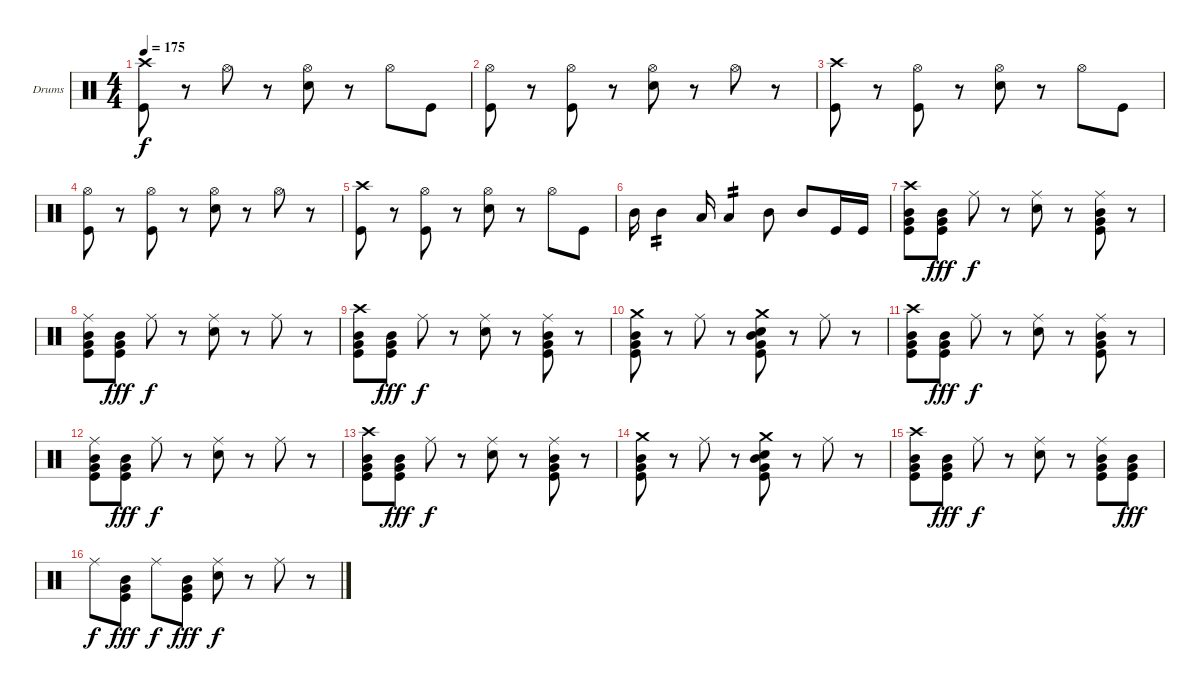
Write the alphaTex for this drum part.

\bracketExtendMode groupsimilarinstruments
\firstSystemTrackNameOrientation horizontal
\otherSystemsTrackNameOrientation horizontal
\track ("Drumkit" "Drums") {instrument percussion}
\staff {score}
\articulation defaults
\ts (4 4)
\tempo 175
\clef neutral
\ks c
("Crash high (hit)" "Kick (hit)").8{dy f} r.8 "Hi-Hat (open)".8 r.8 ("Hi-Hat (open)" "Snare (hit) 2").8 r.8 "Hi-Hat (open)".8 "Kick (hit)".8 |
("Hi-Hat (open)" "Kick (hit)").8 r.8 ("Hi-Hat (open)" "Kick (hit)").8 r.8 ("Hi-Hat (open)" "Snare (hit) 2").8 r.8 "Hi-Hat (open)".8 r.8 |
("Crash high (hit)" "Kick (hit)").8 r.8 ("Hi-Hat (open)" "Kick (hit)").8 r.8 ("Hi-Hat (open)" "Snare (hit) 2").8 r.8 "Hi-Hat (open)".8 "Kick (hit)".8 |
("Hi-Hat (open)" "Kick (hit)").8 r.8 ("Hi-Hat (open)" "Kick (hit)").8 r.8 ("Hi-Hat (open)" "Snare (hit) 2").8 r.8 "Hi-Hat (open)".8 r.8 |
("Crash high (hit)" "Kick (hit)").8 r.8 ("Hi-Hat (open)" "Kick (hit)").8 r.8 ("Hi-Hat (open)" "Snare (hit) 2").8 r.8 "Hi-Hat (open)".8 "Kick (hit)".8 |
"Mid Tom (hit)".16 "Mid Tom (hit)".4{tp 2} "Low Tom (hit)".16 "Low Tom (hit)".4{tp 2} "Mid Tom (hit)".8 "Mid Tom (hit)".8 "Kick (hit)".16 "Kick (hit)".16 |
("Crash high (hit)" "Mid Tom (hit)" "Very Low Tom (hit)" "Kick (hit)").8 ("Mid Tom (hit)" "Very Low Tom (hit)" "Kick (hit)").8{dy fff} "Ride (middle)".8{dy f} r.8 ("Ride (middle)" "Snare (hit) 2").8 r.8 ("Ride (middle)" "Mid Tom (hit)" "Very Low Tom (hit)" "Kick (hit)").8 r.8 |
("Ride (middle)" "Mid Tom (hit)" "Very Low Tom (hit)" "Kick (hit)").8 ("Mid Tom (hit)" "Very Low Tom (hit)" "Kick (hit)").8{dy fff} "Ride (middle)".8{dy f} r.8 ("Ride (middle)" "Snare (hit) 2").8 r.8 "Ride (middle)".8 r.8 |
("Crash high (hit)" "Mid Tom (hit)" "Very Low Tom (hit)" "Kick (hit)").8 ("Mid Tom (hit)" "Very Low Tom (hit)" "Kick (hit)").8{dy fff} "Ride (middle)".8{dy f} r.8 ("Ride (middle)" "Snare (hit) 2").8 r.8 ("Ride (middle)" "Mid Tom (hit)" "Very Low Tom (hit)" "Kick (hit)").8 r.8 |
("Crash medium (hit)" "Mid Tom (hit)" "Very Low Tom (hit)" "Kick (hit)").8 r.8 "Ride (middle)".8 r.8 ("Crash medium (hit)" "Snare (hit) 2" "Mid Tom (hit)" "Very Low Tom (hit)" "Kick (hit)").8 r.8 "Ride (middle)".8 r.8 |
("Crash high (hit)" "Mid Tom (hit)" "Very Low Tom (hit)" "Kick (hit)").8 ("Mid Tom (hit)" "Very Low Tom (hit)" "Kick (hit)").8{dy fff} "Ride (middle)".8{dy f} r.8 ("Ride (middle)" "Snare (hit) 2").8 r.8 ("Ride (middle)" "Mid Tom (hit)" "Very Low Tom (hit)" "Kick (hit)").8 r.8 |
("Ride (middle)" "Mid Tom (hit)" "Very Low Tom (hit)" "Kick (hit)").8 ("Mid Tom (hit)" "Very Low Tom (hit)" "Kick (hit)").8{dy fff} "Ride (middle)".8{dy f} r.8 ("Ride (middle)" "Snare (hit) 2").8 r.8 "Ride (middle)".8 r.8 |
("Crash high (hit)" "Mid Tom (hit)" "Very Low Tom (hit)" "Kick (hit)").8 ("Mid Tom (hit)" "Very Low Tom (hit)" "Kick (hit)").8{dy fff} "Ride (middle)".8{dy f} r.8 ("Ride (middle)" "Snare (hit) 2").8 r.8 ("Ride (middle)" "Mid Tom (hit)" "Very Low Tom (hit)" "Kick (hit)").8 r.8 |
("Crash medium (hit)" "Mid Tom (hit)" "Very Low Tom (hit)" "Kick (hit)").8 r.8 "Ride (middle)".8 r.8 ("Crash medium (hit)" "Snare (hit) 2" "Mid Tom (hit)" "Very Low Tom (hit)" "Kick (hit)").8 r.8 "Ride (middle)".8 r.8 |
("Crash high (hit)" "Mid Tom (hit)" "Very Low Tom (hit)" "Kick (hit)").8 ("Mid Tom (hit)" "Very Low Tom (hit)" "Kick (hit)").8{dy fff} "Ride (middle)".8{dy f} r.8 ("Ride (middle)" "Snare (hit) 2").8 r.8 ("Ride (middle)" "Mid Tom (hit)" "Very Low Tom (hit)" "Kick (hit)").8 ("Mid Tom (hit)" "Very Low Tom (hit)" "Kick (hit)").8{dy fff} |
"Ride (middle)".8{dy f} ("Mid Tom (hit)" "Very Low Tom (hit)" "Kick (hit)").8{dy fff} "Ride (middle)".8{dy f} ("Mid Tom (hit)" "Kick (hit)" "Very Low Tom (hit)").8{dy fff} ("Ride (middle)" "Snare (hit) 2").8{dy f} r.8 "Ride (middle)".8 r.8
